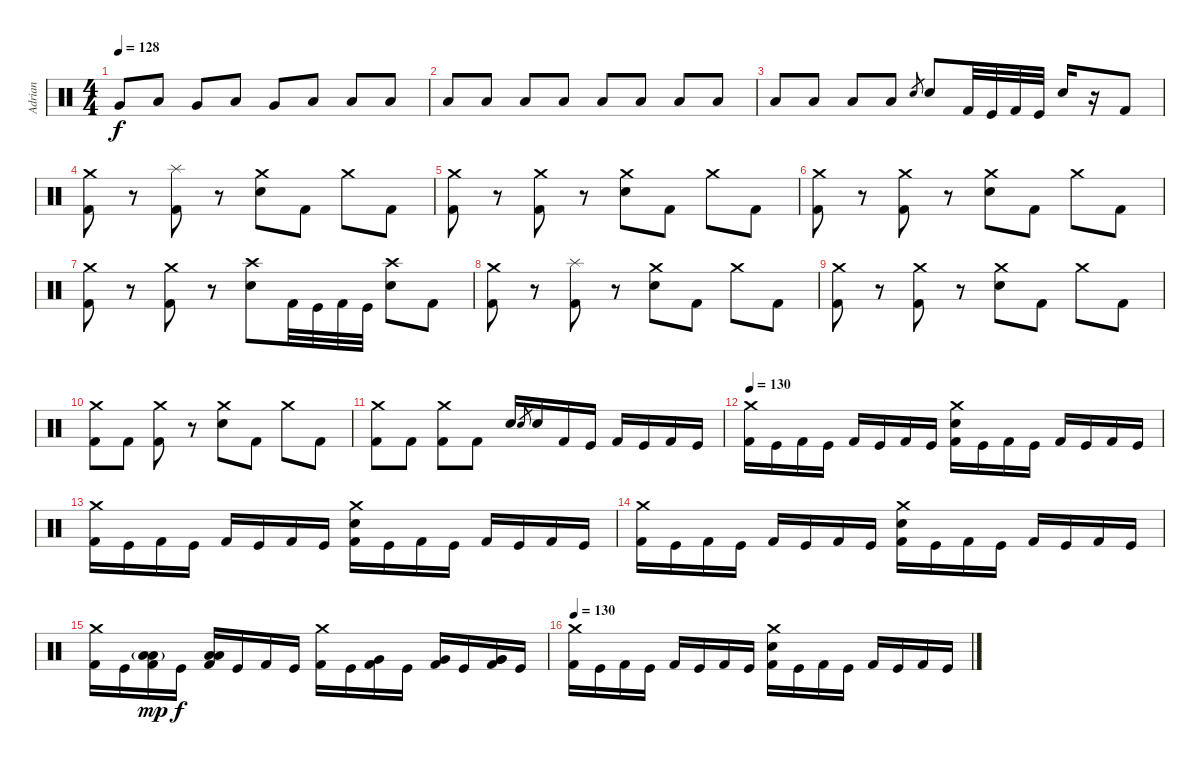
\track ("Adrian" "Adrian") {instrument percussion}
\staff {score}
\articulation defaults
\ts (4 4)
\tempo 128
\clef neutral
\ks c "Very Low Tom (hit)".8{dy f} "Low Floor Tom (hit)".8 "Very Low Tom (hit)".8 "Low Floor Tom (hit)".8 "Very Low Tom (hit)".8 "Low Floor Tom (hit)".8 "Low Floor Tom (hit)".8 "Low Floor Tom (hit)".8
|
"Low Floor Tom (hit)".8 "Low Floor Tom (hit)".8 "Low Floor Tom (hit)".8 "Low Floor Tom (hit)".8 "Low Floor Tom (hit)".8 "Low Floor Tom (hit)".8 "Low Floor Tom (hit)".8 "Low Floor Tom (hit)".8 |
"Low Floor Tom (hit)".8 "Low Floor Tom (hit)".8 "Low Floor Tom (hit)".8 "Low Floor Tom (hit)".8 "Electric Snare (hit)".8{gr} "Electric Snare (hit)".8 "Kick (hit) 2".32 "Kick (hit)".32 "Kick (hit) 2".32 "Kick (hit)".32 "Electric Snare (hit)".16 r.16 "Kick (hit) 2".8 |
("Crash medium (hit)" "Kick (hit) 2").8 r.8 ("Splash (hit)" "Kick (hit) 2").8 r.8 ("Crash medium (hit)" "Electric Snare (hit)").8 "Kick (hit) 2".8 "Crash medium (hit)".8 "Kick (hit) 2".8 |
("Crash medium (hit)" "Kick (hit) 2").8 r.8 ("Crash medium (hit)" "Kick (hit) 2").8 r.8 ("Crash medium (hit)" "Electric Snare (hit)").8 "Kick (hit) 2".8 "Crash medium (hit)".8 "Kick (hit) 2".8 |
("Crash medium (hit)" "Kick (hit) 2").8 r.8 ("Crash medium (hit)" "Kick (hit) 2").8 r.8 ("Crash medium (hit)" "Electric Snare (hit)").8 "Kick (hit) 2".8 "Crash medium (hit)".8 "Kick (hit) 2".8 |
("Crash medium (hit)" "Kick (hit) 2").8 r.8 ("Crash medium (hit)" "Kick (hit) 2").8 r.8 ("Crash high (hit)" "Electric Snare (hit)").8 "Kick (hit) 2".32 "Kick (hit)".32 "Kick (hit) 2".32 "Kick (hit)".32 ("Crash high (hit)" "Electric Snare (hit)").8 "Kick (hit) 2".8 |
("Crash medium (hit)" "Kick (hit) 2").8 r.8 ("Splash (hit)" "Kick (hit) 2").8 r.8 ("Crash medium (hit)" "Electric Snare (hit)").8 "Kick (hit) 2".8 "Crash medium (hit)".8 "Kick (hit) 2".8 |
("Crash medium (hit)" "Kick (hit) 2").8 r.8 ("Crash medium (hit)" "Kick (hit) 2").8 r.8 ("Crash medium (hit)" "Electric Snare (hit)").8 "Kick (hit) 2".8 "Crash medium (hit)".8 "Kick (hit) 2".8 |
("Crash medium (hit)" "Kick (hit) 2").8 "Kick (hit) 2".8 ("Crash medium (hit)" "Kick (hit) 2").8 r.8 ("Crash medium (hit)" "Electric Snare (hit)").8 "Kick (hit) 2".8 "Crash medium (hit)".8 "Kick (hit) 2".8 |
("Crash medium (hit)" "Kick (hit) 2").8 "Kick (hit) 2".8 ("Crash medium (hit)" "Kick (hit) 2").8 "Kick (hit) 2".8 "Electric Snare (hit)".16 "Electric Snare (hit)".8{gr} "Electric Snare (hit)".16 "Kick (hit) 2".16 "Kick (hit)".16 "Kick (hit) 2".16 "Kick (hit)".16 "Kick (hit) 2".16 "Kick (hit)".16 |
\tempo 130
("Crash medium (hit)" "Kick (hit) 2").16 "Kick (hit)".16 "Kick (hit) 2".16 "Kick (hit)".16 "Kick (hit) 2".16 "Kick (hit)".16 "Kick (hit) 2".16 "Kick (hit)".16 ("Crash medium (hit)" "Electric Snare (hit)" "Kick (hit) 2").16 "Kick (hit)".16 "Kick (hit) 2".16 "Kick (hit)".16 "Kick (hit) 2".16 "Kick (hit)".16 "Kick (hit) 2".16 "Kick (hit)".16 |
("Crash medium (hit)" "Kick (hit) 2").16 "Kick (hit)".16 "Kick (hit) 2".16 "Kick (hit)".16 "Kick (hit) 2".16 "Kick (hit)".16 "Kick (hit) 2".16 "Kick (hit)".16 ("Crash medium (hit)" "Electric Snare (hit)" "Kick (hit) 2").16 "Kick (hit)".16 "Kick (hit) 2".16 "Kick (hit)".16 "Kick (hit) 2".16 "Kick (hit)".16 "Kick (hit) 2".16 "Kick (hit)".16 |
("Crash medium (hit)" "Kick (hit) 2").16 "Kick (hit)".16 "Kick (hit) 2".16 "Kick (hit)".16 "Kick (hit) 2".16 "Kick (hit)".16 "Kick (hit) 2".16 "Kick (hit)".16 ("Crash medium (hit)" "Electric Snare (hit)" "Kick (hit) 2").16 "Kick (hit)".16 "Kick (hit) 2".16 "Kick (hit)".16 "Kick (hit) 2".16 "Kick (hit)".16 "Kick (hit) 2".16 "Kick (hit)".16 |
("Crash medium (hit)" "Kick (hit) 2").16 "Kick (hit)".16 ("Low Tom (hit)"{g} "Low Tom (hit)" "Kick (hit) 2").16{dy mp} "Kick (hit)".16{dy f} ("Low Tom (hit)" "Low Tom (hit)" "Kick (hit) 2").16 "Kick (hit)".16 "Kick (hit) 2".16 "Kick (hit)".16 ("Crash medium (hit)" "Kick (hit) 2").16 "Kick (hit)".16 ("Very Low Tom (hit)" "Kick (hit) 2").16 "Kick (hit)".16 ("Very Low Tom (hit)" "Kick (hit) 2").16 "Kick (hit)".16 ("Very Low Tom (hit)" "Very Low Tom (hit)" "Kick (hit) 2").16 "Kick (hit)".16 |
\tempo 130
("Crash medium (hit)" "Kick (hit) 2").16 "Kick (hit)".16 "Kick (hit) 2".16 "Kick (hit)".16 "Kick (hit) 2".16 "Kick (hit)".16 "Kick (hit) 2".16 "Kick (hit)".16 ("Crash medium (hit)" "Electric Snare (hit)" "Kick (hit) 2").16 "Kick (hit)".16 "Kick (hit) 2".16 "Kick (hit)".16 "Kick (hit) 2".16 "Kick (hit)".16 "Kick (hit) 2".16 "Kick (hit)".16
